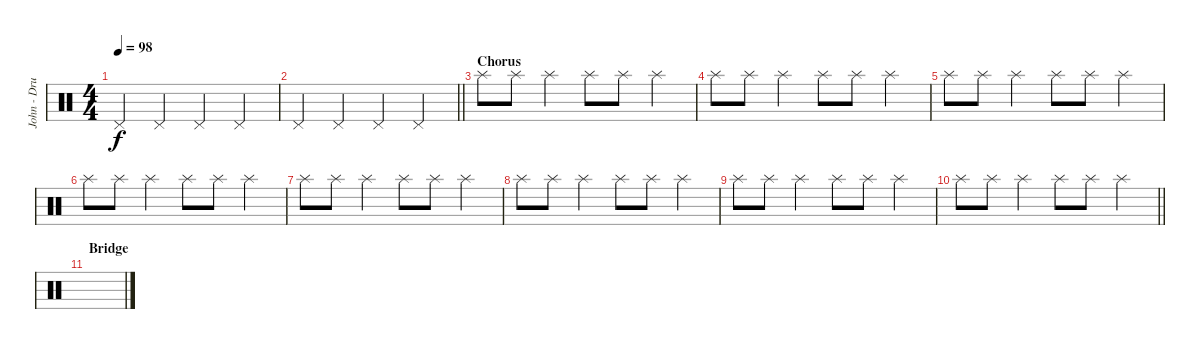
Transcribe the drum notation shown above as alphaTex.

\track ("John - Drums" "John - Dru") {instrument percussion}
\staff {score}
\articulation defaults
\ts (4 4)
\tempo 98
\clef neutral
\ks c "Pedal Hi-Hat (hit)".4{dy f} "Pedal Hi-Hat (hit)".4 "Pedal Hi-Hat (hit)".4 "Pedal Hi-Hat (hit)".4
|
\barLineRight lightlight "Pedal Hi-Hat (hit)".4 "Pedal Hi-Hat (hit)".4 "Pedal Hi-Hat (hit)".4 "Pedal Hi-Hat (hit)".4
|
\section ("" "Chorus")
"Splash (hit)".8 "Splash (hit)".8 "Splash (hit)".4 "Splash (hit)".8 "Splash (hit)".8 "Splash (hit)".4 |
"Splash (hit)".8 "Splash (hit)".8 "Splash (hit)".4 "Splash (hit)".8 "Splash (hit)".8 "Splash (hit)".4 |
"Splash (hit)".8 "Splash (hit)".8 "Splash (hit)".4 "Splash (hit)".8 "Splash (hit)".8 "Splash (hit)".4 |
"Splash (hit)".8 "Splash (hit)".8 "Splash (hit)".4 "Splash (hit)".8 "Splash (hit)".8 "Splash (hit)".4 |
"Splash (hit)".8 "Splash (hit)".8 "Splash (hit)".4 "Splash (hit)".8 "Splash (hit)".8 "Splash (hit)".4 |
"Splash (hit)".8 "Splash (hit)".8 "Splash (hit)".4 "Splash (hit)".8 "Splash (hit)".8 "Splash (hit)".4 |
"Splash (hit)".8 "Splash (hit)".8 "Splash (hit)".4 "Splash (hit)".8 "Splash (hit)".8 "Splash (hit)".4 |
\barLineRight lightlight "Splash (hit)".8 "Splash (hit)".8 "Splash (hit)".4 "Splash (hit)".8 "Splash (hit)".8 "Splash (hit)".4
|
\section ("" "Bridge")
